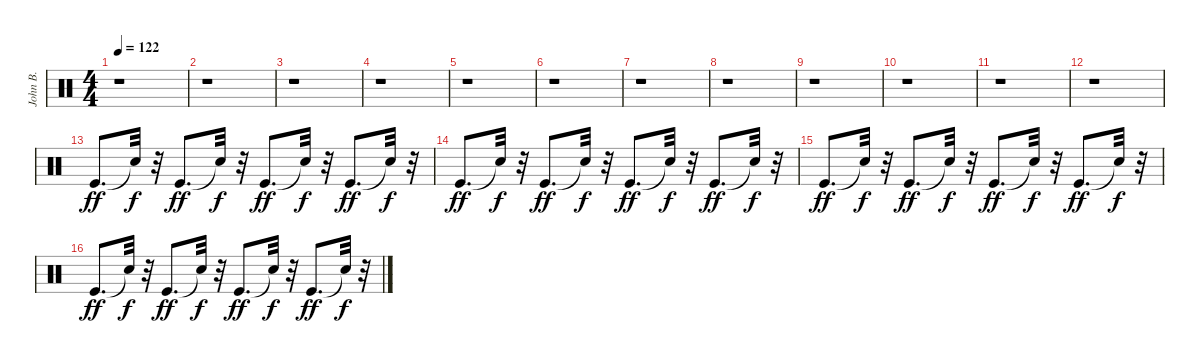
\track ("John B." "John B.") {instrument percussion}
\staff {score}
\articulation defaults
\ts (4 4)
\tempo 122
\clef neutral
\ks c
r.1{dy ff} |
r.1 |
r.1 |
r.1 |
r.1 |
r.1 |
r.1 |
r.1 |
r.1 |
r.1 |
r.1 |
r.1 |
"Kick (hit)".8{d} "Snare (hit)"{t}.32{dy f} r.32 "Kick (hit)".8{d dy ff} "Snare (hit)"{t}.32{dy f} r.32 "Kick (hit)".8{d dy ff} "Snare (hit)"{t}.32{dy f} r.32 "Kick (hit)".8{d dy ff} "Snare (hit)"{t}.32{dy f} r.32 |
"Kick (hit)".8{d dy ff} "Snare (hit)"{t}.32{dy f} r.32 "Kick (hit)".8{d dy ff} "Snare (hit)"{t}.32{dy f} r.32 "Kick (hit)".8{d dy ff} "Snare (hit)"{t}.32{dy f} r.32 "Kick (hit)".8{d dy ff} "Snare (hit)"{t}.32{dy f} r.32 |
"Kick (hit)".8{d dy ff} "Snare (hit)"{t}.32{dy f} r.32 "Kick (hit)".8{d dy ff} "Snare (hit)"{t}.32{dy f} r.32 "Kick (hit)".8{d dy ff} "Snare (hit)"{t}.32{dy f} r.32 "Kick (hit)".8{d dy ff} "Snare (hit)"{t}.32{dy f} r.32 |
"Kick (hit)".8{d dy ff} "Snare (hit)"{t}.32{dy f} r.32 "Kick (hit)".8{d dy ff} "Snare (hit)"{t}.32{dy f} r.32 "Kick (hit)".8{d dy ff} "Snare (hit)"{t}.32{dy f} r.32 "Kick (hit)".8{d dy ff} "Snare (hit)"{t}.32{dy f} r.32
